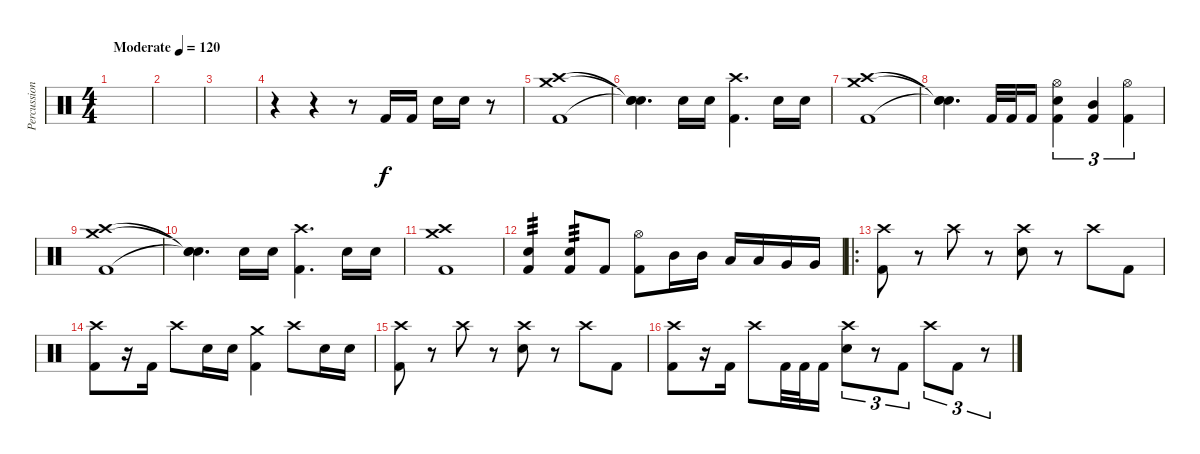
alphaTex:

\track ("Percussion" "Percussion") {instrument percussion}
\staff {score}
\articulation defaults
\ts (4 4)
\tempo (120 "Moderate")
\clef neutral
\ks c
|
|
|
r.4 r.4 r.8 "Kick (hit) 2".16 "Kick (hit) 2".16 "Snare (hit) 2".16 "Snare (hit) 2".16 r.8 |
("Crash high (hit)" "Crash medium (hit)" "Kick (hit) 2").1 |
("Snare (hit)"{t} "Snare (hit)"{t} "Snare (hit)"{t}).4{d} "Snare (hit) 2".16 "Snare (hit) 2".16 ("Crash high (hit)" "Kick (hit) 2").4{d} "Snare (hit) 2".16 "Snare (hit) 2".16 |
("Crash high (hit)" "Crash medium (hit)" "Kick (hit) 2").1 |
("Snare (hit)"{t} "Snare (hit)"{t} "Snare (hit)"{t}).4{d} "Kick (hit) 2".32 "Kick (hit) 2".32 "Kick (hit) 2".16 ("Hi-Hat (open)" "Snare (hit) 2" "Kick (hit) 2").4{tu (3 2)} ("Mid Tom (hit)" "Kick (hit) 2").4{tu (3 2)} ("Hi-Hat (open)" "Kick (hit) 2").4{tu (3 2)} |
("Crash high (hit)" "Crash medium (hit)" "Kick (hit) 2").1 |
("Snare (hit)"{t} "Snare (hit)"{t} "Snare (hit)"{t}).4{d} "Snare (hit) 2".16 "Snare (hit) 2".16 ("Crash high (hit)" "Kick (hit) 2").4{d} "Snare (hit) 2".16 "Snare (hit) 2".16 |
("Crash high (hit)" "Crash medium (hit)" "Kick (hit) 2").1 |
("Snare (hit) 2" "Kick (hit) 2").4{tp 3} ("Snare (hit) 2" "Kick (hit) 2").8{tp 3} "Kick (hit) 2".8 ("Hi-Hat (open)" "Kick (hit) 2").8 "Mid Tom (hit)".16 "Mid Tom (hit)".16 "Low Tom (hit)".16 "Low Tom (hit)".16 "Very Low Tom (hit)".16 "Very Low Tom (hit)".16 |
\ro
("Crash high (hit)" "Kick (hit) 2").8 r.8 "Crash high (hit)".8 r.8 ("Crash high (hit)" "Snare (hit) 2").8 r.8 "Crash high (hit)".8 "Kick (hit) 2".8 |
("Crash high (hit)" "Kick (hit) 2").8 r.16 "Kick (hit) 2".16 "Crash high (hit)".8 "Snare (hit) 2".16 "Snare (hit) 2".16 ("Crash medium (hit)" "Kick (hit) 2").4 "Crash high (hit)".8 "Snare (hit) 2".16 "Snare (hit) 2".16 |
("Crash high (hit)" "Kick (hit) 2").8 r.8 "Crash high (hit)".8 r.8 ("Crash high (hit)" "Snare (hit) 2").8 r.8 "Crash high (hit)".8 "Kick (hit) 2".8 |
("Crash high (hit)" "Kick (hit) 2").8 r.16 "Kick (hit) 2".16 "Crash high (hit)".8 "Kick (hit) 2".32 "Kick (hit) 2".32 "Kick (hit) 2".16 ("Crash high (hit)" "Snare (hit) 2").8{tu (3 2)} r.8{tu (3 2)} "Kick (hit) 2".8{tu (3 2)} "Crash high (hit)".8{tu (3 2)} "Kick (hit) 2".8{tu (3 2)} r.8{tu (3 2)}
